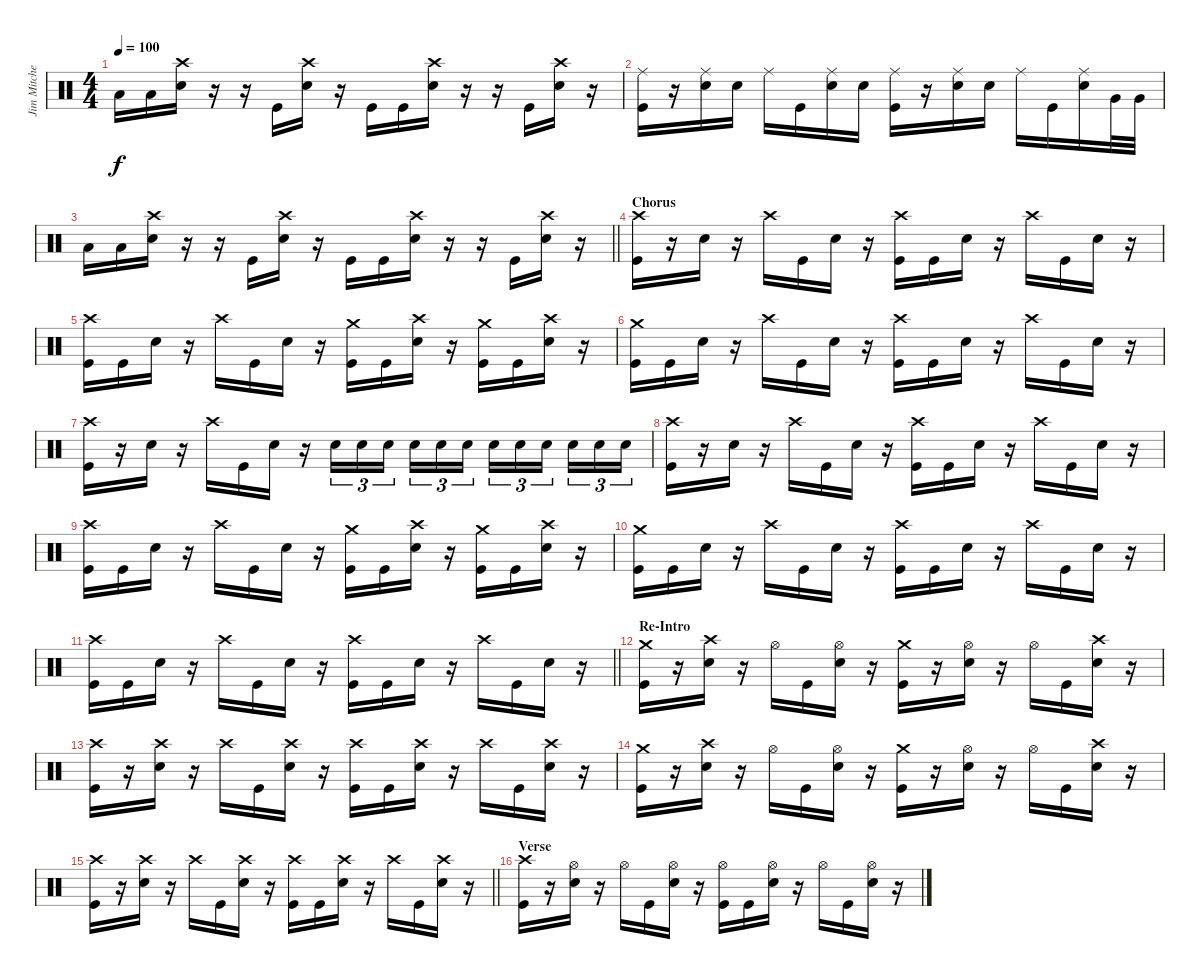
\track ("Jim Mitchell" "Jim Mitche") {instrument percussion}
\staff {score}
\articulation defaults
\ts (4 4)
\tempo 100
\clef neutral
\ks c "Low Floor Tom (hit)".16{dy f} "Low Floor Tom (hit)".16
("Crash high (hit)" "Snare (hit) 2").16 r.16 r.16 "Kick (hit)".16 ("Crash high (hit)" "Snare (hit) 2").16 r.16 "Kick (hit)".16 "Kick (hit)".16 ("Crash high (hit)" "Snare (hit) 2").16 r.16 r.16 "Kick (hit)".16 ("Crash high (hit)" "Snare (hit) 2").16 r.16 |
("Ride (middle)" "Kick (hit)").16 r.16 ("Ride (middle)" "Snare (hit) 2").16 "Snare (hit) 2".16 "Ride (middle)".16 "Kick (hit)".16 ("Ride (middle)" "Snare (hit) 2").16 "Snare (hit) 2".16 ("Ride (middle)" "Kick (hit)").16 r.16 ("Ride (middle)" "Snare (hit) 2").16 "Snare (hit) 2".16 "Ride (middle)".16 "Kick (hit)".16 ("Ride (middle)" "Snare (hit) 2").16 "Very Low Tom (hit)".32 "Very Low Tom (hit)".32 |
\barLineRight lightlight "Low Floor Tom (hit)".16 "Low Floor Tom (hit)".16
("Crash high (hit)" "Snare (hit) 2").16 r.16 r.16 "Kick (hit)".16 ("Crash high (hit)" "Snare (hit) 2").16 r.16 "Kick (hit)".16 "Kick (hit)".16 ("Crash high (hit)" "Snare (hit) 2").16 r.16 r.16 "Kick (hit)".16 ("Crash high (hit)" "Snare (hit) 2").16 r.16 |
\section ("" "Chorus")
("Crash high (hit)" "Kick (hit)").16 r.16 "Snare (hit) 2".16 r.16 "Crash high (hit)".16 "Kick (hit)".16 "Snare (hit) 2".16 r.16 ("Crash high (hit)" "Kick (hit)").16 "Kick (hit)".16 "Snare (hit) 2".16 r.16 "Crash high (hit)".16 "Kick (hit)".16 "Snare (hit) 2".16 r.16 |
("Crash high (hit)" "Kick (hit)").16 "Kick (hit)".16 "Snare (hit) 2".16 r.16 "Crash high (hit)".16 "Kick (hit)".16 "Snare (hit) 2".16 r.16 ("Crash medium (hit)" "Kick (hit)").16 "Kick (hit)".16 ("Crash high (hit)" "Snare (hit) 2").16 r.16 ("Crash medium (hit)" "Kick (hit)").16 "Kick (hit)".16 ("Crash high (hit)" "Snare (hit) 2").16 r.16 |
("Crash medium (hit)" "Kick (hit)").16 "Kick (hit)".16 "Snare (hit) 2".16 r.16 "Crash high (hit)".16 "Kick (hit)".16 "Snare (hit) 2".16 r.16 ("Crash high (hit)" "Kick (hit)").16 "Kick (hit)".16 "Snare (hit) 2".16 r.16 "Crash high (hit)".16 "Kick (hit)".16 "Snare (hit) 2".16 r.16 |
("Crash high (hit)" "Kick (hit)").16 r.16 "Snare (hit) 2".16 r.16 "Crash high (hit)".16 "Kick (hit)".16 "Snare (hit) 2".16 r.16 "Snare (hit) 2".16{tu (3 2)} "Snare (hit) 2".16{tu (3 2)} "Snare (hit) 2".16{tu (3 2) beam splitsecondary} "Snare (hit) 2".16{tu (3 2)} "Snare (hit) 2".16{tu (3 2)} "Snare (hit) 2".16{tu (3 2)} "Snare (hit) 2".16{tu (3 2)} "Snare (hit) 2".16{tu (3 2)} "Snare (hit) 2".16{tu (3 2) beam splitsecondary} "Snare (hit) 2".16{tu (3 2)} "Snare (hit) 2".16{tu (3 2)} "Snare (hit) 2".16{tu (3 2)} |
("Crash high (hit)" "Kick (hit)").16 r.16 "Snare (hit) 2".16 r.16 "Crash high (hit)".16 "Kick (hit)".16 "Snare (hit) 2".16 r.16 ("Crash high (hit)" "Kick (hit)").16 "Kick (hit)".16 "Snare (hit) 2".16 r.16 "Crash high (hit)".16 "Kick (hit)".16 "Snare (hit) 2".16 r.16 |
("Crash high (hit)" "Kick (hit)").16 "Kick (hit)".16 "Snare (hit) 2".16 r.16 "Crash high (hit)".16 "Kick (hit)".16 "Snare (hit) 2".16 r.16 ("Crash medium (hit)" "Kick (hit)").16 "Kick (hit)".16 ("Crash high (hit)" "Snare (hit) 2").16 r.16 ("Crash medium (hit)" "Kick (hit)").16 "Kick (hit)".16 ("Crash high (hit)" "Snare (hit) 2").16 r.16 |
("Crash medium (hit)" "Kick (hit)").16 "Kick (hit)".16 "Snare (hit) 2".16 r.16 "Crash high (hit)".16 "Kick (hit)".16 "Snare (hit) 2".16 r.16 ("Crash high (hit)" "Kick (hit)").16 "Kick (hit)".16 "Snare (hit) 2".16 r.16 "Crash high (hit)".16 "Kick (hit)".16 "Snare (hit) 2".16 r.16 |
\barLineRight lightlight
("Crash high (hit)" "Kick (hit)").16 "Kick (hit)".16 "Snare (hit) 2".16 r.16 "Crash high (hit)".16 "Kick (hit)".16 "Snare (hit) 2".16 r.16 ("Crash high (hit)" "Kick (hit)").16 "Kick (hit)".16 "Snare (hit) 2".16 r.16 "Crash high (hit)".16 "Kick (hit)".16 "Snare (hit) 2".16 r.16 |
\section ("" "Re-Intro")
("Crash medium (hit)" "Kick (hit)").16 r.16 ("Crash high (hit)" "Snare (hit) 2").16 r.16 "Hi-Hat (open)".16 "Kick (hit)".16 ("Hi-Hat (open)" "Snare (hit) 2").16 r.16 ("Crash medium (hit)" "Kick (hit)").16 r.16 ("Hi-Hat (open)" "Snare (hit) 2").16 r.16 "Hi-Hat (open)".16 "Kick (hit)".16 ("Crash high (hit)" "Snare (hit) 2").16 r.16 |
("Crash high (hit)" "Kick (hit)").16 r.16 ("Crash high (hit)" "Snare (hit) 2").16 r.16 "Crash high (hit)".16 "Kick (hit)".16 ("Crash high (hit)" "Snare (hit) 2").16 r.16 ("Crash high (hit)" "Kick (hit)").16 "Kick (hit)".16 ("Crash high (hit)" "Snare (hit) 2").16 r.16 "Crash high (hit)".16 "Kick (hit)".16 ("Crash high (hit)" "Snare (hit) 2").16 r.16 |
("Crash medium (hit)" "Kick (hit)").16 r.16 ("Crash high (hit)" "Snare (hit) 2").16 r.16 "Hi-Hat (open)".16 "Kick (hit)".16 ("Hi-Hat (open)" "Snare (hit) 2").16 r.16 ("Crash medium (hit)" "Kick (hit)").16 r.16 ("Hi-Hat (open)" "Snare (hit) 2").16 r.16 "Hi-Hat (open)".16 "Kick (hit)".16 ("Crash high (hit)" "Snare (hit) 2").16 r.16 |
\barLineRight lightlight
("Crash high (hit)" "Kick (hit)").16 r.16 ("Crash high (hit)" "Snare (hit) 2").16 r.16 "Crash high (hit)".16 "Kick (hit)".16 ("Crash high (hit)" "Snare (hit) 2").16 r.16 ("Crash high (hit)" "Kick (hit)").16 "Kick (hit)".16 ("Crash high (hit)" "Snare (hit) 2").16 r.16 "Crash high (hit)".16 "Kick (hit)".16 ("Crash high (hit)" "Snare (hit) 2").16 r.16 |
\section ("" "Verse")
("Crash high (hit)" "Kick (hit)").16 r.16 ("Hi-Hat (open)" "Snare (hit) 2").16 r.16 "Hi-Hat (open)".16 "Kick (hit)".16 ("Hi-Hat (open)" "Snare (hit) 2").16 r.16 ("Hi-Hat (open)" "Kick (hit)").16 "Kick (hit)".16 ("Hi-Hat (open)" "Snare (hit) 2").16 r.16 "Hi-Hat (open)".16 "Kick (hit)".16 ("Hi-Hat (open)" "Snare (hit) 2").16 r.16
